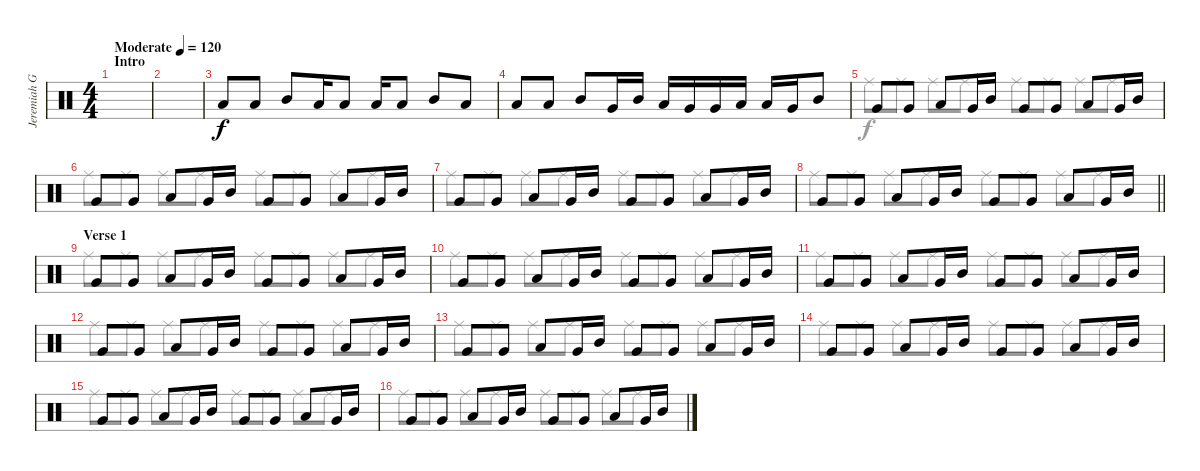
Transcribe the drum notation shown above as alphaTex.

\track ("Jeremiah Green" "Jeremiah G") {instrument percussion}
\staff {score}
\articulation defaults
\voice
\ts (4 4)
\section ("" "Intro")
\tempo (120 "Moderate")
\clef neutral
\ks c
|
|
"Low Tom (hit)".8 "Low Tom (hit)".8 "Mid Tom (hit)".8 "Low Tom (hit)".16 "Low Tom (hit)".8 "Low Tom (hit)".16 "Low Tom (hit)".8 "Mid Tom (hit)".8 "Low Tom (hit)".8 |
"Low Tom (hit)".8 "Low Tom (hit)".8 "Mid Tom (hit)".8 "Very Low Tom (hit)".16 "Mid Tom (hit)".16 "Low Tom (hit)".16 "Very Low Tom (hit)".16 "Very Low Tom (hit)".16 "Low Tom (hit)".16 "Low Tom (hit)".16 "Very Low Tom (hit)".16 "Mid Tom (hit)".8 |
"Very Low Tom (hit)".8 "Very Low Tom (hit)".8 "Low Tom (hit)".8 "Very Low Tom (hit)".16 "Mid Tom (hit)".16 "Very Low Tom (hit)".8 "Very Low Tom (hit)".8 "Low Tom (hit)".8 "Very Low Tom (hit)".16 "Mid Tom (hit)".16 |
"Very Low Tom (hit)".8 "Very Low Tom (hit)".8 "Low Tom (hit)".8 "Very Low Tom (hit)".16 "Mid Tom (hit)".16 "Very Low Tom (hit)".8 "Very Low Tom (hit)".8 "Low Tom (hit)".8 "Very Low Tom (hit)".16 "Mid Tom (hit)".16 |
"Very Low Tom (hit)".8 "Very Low Tom (hit)".8 "Low Tom (hit)".8 "Very Low Tom (hit)".16 "Mid Tom (hit)".16 "Very Low Tom (hit)".8 "Very Low Tom (hit)".8 "Low Tom (hit)".8 "Very Low Tom (hit)".16 "Mid Tom (hit)".16 |
\barLineRight lightlight "Very Low Tom (hit)".8 "Very Low Tom (hit)".8 "Low Tom (hit)".8 "Very Low Tom (hit)".16 "Mid Tom (hit)".16 "Very Low Tom (hit)".8 "Very Low Tom (hit)".8 "Low Tom (hit)".8 "Very Low Tom (hit)".16 "Mid Tom (hit)".16
|
\section ("" "Verse 1")
"Very Low Tom (hit)".8 "Very Low Tom (hit)".8 "Low Tom (hit)".8 "Very Low Tom (hit)".16 "Mid Tom (hit)".16 "Very Low Tom (hit)".8 "Very Low Tom (hit)".8 "Low Tom (hit)".8 "Very Low Tom (hit)".16 "Mid Tom (hit)".16 |
"Very Low Tom (hit)".8 "Very Low Tom (hit)".8 "Low Tom (hit)".8 "Very Low Tom (hit)".16 "Mid Tom (hit)".16 "Very Low Tom (hit)".8 "Very Low Tom (hit)".8 "Low Tom (hit)".8 "Very Low Tom (hit)".16 "Mid Tom (hit)".16 |
"Very Low Tom (hit)".8 "Very Low Tom (hit)".8 "Low Tom (hit)".8 "Very Low Tom (hit)".16 "Mid Tom (hit)".16 "Very Low Tom (hit)".8 "Very Low Tom (hit)".8 "Low Tom (hit)".8 "Very Low Tom (hit)".16 "Mid Tom (hit)".16 |
"Very Low Tom (hit)".8 "Very Low Tom (hit)".8 "Low Tom (hit)".8 "Very Low Tom (hit)".16 "Mid Tom (hit)".16 "Very Low Tom (hit)".8 "Very Low Tom (hit)".8 "Low Tom (hit)".8 "Very Low Tom (hit)".16 "Mid Tom (hit)".16 |
"Very Low Tom (hit)".8 "Very Low Tom (hit)".8 "Low Tom (hit)".8 "Very Low Tom (hit)".16 "Mid Tom (hit)".16 "Very Low Tom (hit)".8 "Very Low Tom (hit)".8 "Low Tom (hit)".8 "Very Low Tom (hit)".16 "Mid Tom (hit)".16 |
"Very Low Tom (hit)".8 "Very Low Tom (hit)".8 "Low Tom (hit)".8 "Very Low Tom (hit)".16 "Mid Tom (hit)".16 "Very Low Tom (hit)".8 "Very Low Tom (hit)".8 "Low Tom (hit)".8 "Very Low Tom (hit)".16 "Mid Tom (hit)".16 |
"Very Low Tom (hit)".8 "Very Low Tom (hit)".8 "Low Tom (hit)".8 "Very Low Tom (hit)".16 "Mid Tom (hit)".16 "Very Low Tom (hit)".8 "Very Low Tom (hit)".8 "Low Tom (hit)".8 "Very Low Tom (hit)".16 "Mid Tom (hit)".16 |
"Very Low Tom (hit)".8 "Very Low Tom (hit)".8 "Low Tom (hit)".8 "Very Low Tom (hit)".16 "Mid Tom (hit)".16 "Very Low Tom (hit)".8 "Very Low Tom (hit)".8 "Low Tom (hit)".8 "Very Low Tom (hit)".16 "Mid Tom (hit)".16
\voice
\clef neutral
\ottava regular
\simile none
\ks c
|
|
|
|
"Ride (middle)".8 "Ride (middle)".8 "Ride (middle)".8 "Ride (middle)".8 "Ride (middle)".8 "Ride (middle)".8 "Ride (middle)".8 "Ride (middle)".8 |
"Ride (middle)".8 "Ride (middle)".8 "Ride (middle)".8 "Ride (middle)".8 "Ride (middle)".8 "Ride (middle)".8 "Ride (middle)".8 "Ride (middle)".8 |
"Ride (middle)".8 "Ride (middle)".8 "Ride (middle)".8 "Ride (middle)".8 "Ride (middle)".8 "Ride (middle)".8 "Ride (middle)".8 "Ride (middle)".8 |
\barLineRight lightlight "Ride (middle)".8 "Ride (middle)".8 "Ride (middle)".8 "Ride (middle)".8 "Ride (middle)".8 "Ride (middle)".8 "Ride (middle)".8 "Ride (middle)".8
|
"Ride (middle)".8 "Ride (middle)".8 "Ride (middle)".8 "Ride (middle)".8 "Ride (middle)".8 "Ride (middle)".8 "Ride (middle)".8 "Ride (middle)".8 |
"Ride (middle)".8 "Ride (middle)".8 "Ride (middle)".8 "Ride (middle)".8 "Ride (middle)".8 "Ride (middle)".8 "Ride (middle)".8 "Ride (middle)".8 |
"Ride (middle)".8 "Ride (middle)".8 "Ride (middle)".8 "Ride (middle)".8 "Ride (middle)".8 "Ride (middle)".8 "Ride (middle)".8 "Ride (middle)".8 |
"Ride (middle)".8 "Ride (middle)".8 "Ride (middle)".8 "Ride (middle)".8 "Ride (middle)".8 "Ride (middle)".8 "Ride (middle)".8 "Ride (middle)".8 |
"Ride (middle)".8 "Ride (middle)".8 "Ride (middle)".8 "Ride (middle)".8 "Ride (middle)".8 "Ride (middle)".8 "Ride (middle)".8 "Ride (middle)".8 |
"Ride (middle)".8 "Ride (middle)".8 "Ride (middle)".8 "Ride (middle)".8 "Ride (middle)".8 "Ride (middle)".8 "Ride (middle)".8 "Ride (middle)".8 |
"Ride (middle)".8 "Ride (middle)".8 "Ride (middle)".8 "Ride (middle)".8 "Ride (middle)".8 "Ride (middle)".8 "Ride (middle)".8 "Ride (middle)".8 |
"Ride (middle)".8 "Ride (middle)".8 "Ride (middle)".8 "Ride (middle)".8 "Ride (middle)".8 "Ride (middle)".8 "Ride (middle)".8 "Ride (middle)".8
